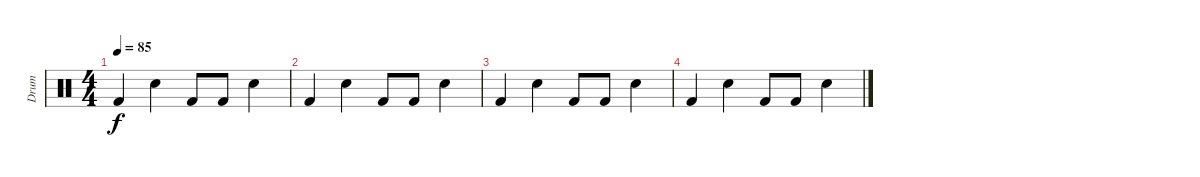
\track ("Drum" "Drum") {instrument percussion}
\staff {score}
\articulation defaults
\ts (4 4)
\tempo 85
\clef neutral
\ks c "Kick (hit) 2".4{dy f} "Snare (hit) 2".4 "Kick (hit) 2".8 "Kick (hit) 2".8 "Snare (hit) 2".4
|
"Kick (hit) 2".4 "Snare (hit) 2".4 "Kick (hit) 2".8 "Kick (hit) 2".8 "Snare (hit) 2".4 |
"Kick (hit) 2".4 "Snare (hit) 2".4 "Kick (hit) 2".8 "Kick (hit) 2".8 "Snare (hit) 2".4 |
"Kick (hit) 2".4 "Snare (hit) 2".4 "Kick (hit) 2".8 "Kick (hit) 2".8 "Snare (hit) 2".4
